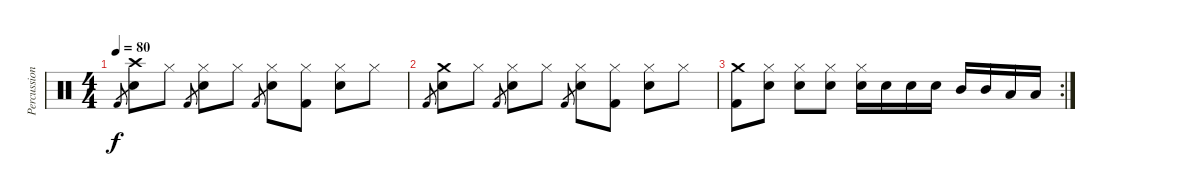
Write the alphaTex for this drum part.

\track ("Percussion" "Percussion") {instrument percussion}
\staff {score}
\articulation defaults
\ts (4 4)
\tempo 80
\clef neutral
\ks c "Kick (hit) 2".8{gr dy f}
("Crash high (hit)" "Snare (hit) 2").8 "Hi-Hat (closed)".8 "Kick (hit) 2".8{gr} ("Hi-Hat (closed)" "Snare (hit) 2").8 "Hi-Hat (closed)".8 "Kick (hit) 2".8{gr} ("Hi-Hat (closed)" "Snare (hit) 2").8 ("Hi-Hat (closed)" "Kick (hit) 2").8 ("Hi-Hat (closed)" "Snare (hit) 2").8 "Hi-Hat (closed)".8 |
"Kick (hit) 2".8{gr} ("Crash medium (hit)" "Snare (hit) 2").8 "Hi-Hat (closed)".8 "Kick (hit) 2".8{gr} ("Hi-Hat (closed)" "Snare (hit) 2").8 "Hi-Hat (closed)".8 "Kick (hit) 2".8{gr} ("Hi-Hat (closed)" "Snare (hit) 2").8 ("Hi-Hat (closed)" "Kick (hit) 2").8 ("Hi-Hat (closed)" "Snare (hit) 2").8 "Hi-Hat (closed)".8 |
\rc 2
("Crash medium (hit)" "Kick (hit) 2").8 ("Hi-Hat (closed)" "Snare (hit) 2").8 ("Hi-Hat (closed)" "Snare (hit) 2").8 ("Hi-Hat (closed)" "Snare (hit) 2").8 ("Hi-Hat (closed)" "Snare (hit) 2").16 "Snare (hit) 2".16 "Snare (hit) 2".16 "Snare (hit) 2".16 "Mid Tom (hit)".16 "Mid Tom (hit)".16 "Low Floor Tom (hit)".16 "Low Floor Tom (hit)".16
